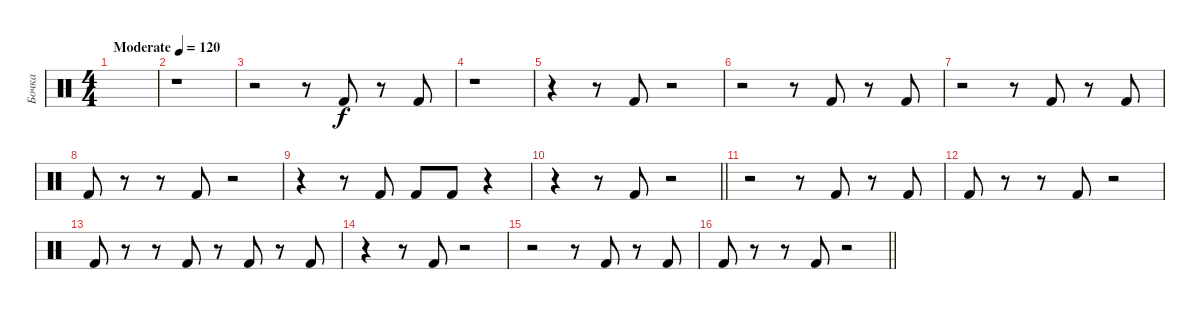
\track ("Бочка" "Бочка") {instrument percussion}
\staff {score}
\articulation defaults
\ts (4 4)
\tempo (120 "Moderate")
\clef neutral
\ks c
|
r.1 |
r.2 r.8 "Kick (hit) 2".8 r.8 "Kick (hit) 2".8 |
r.1 |
r.4 r.8 "Kick (hit) 2".8 r.2 |
r.2 r.8 "Kick (hit) 2".8 r.8 "Kick (hit) 2".8 |
r.2 r.8 "Kick (hit) 2".8 r.8 "Kick (hit) 2".8 |
"Kick (hit) 2".8 r.8 r.8 "Kick (hit) 2".8 r.2 |
r.4 r.8 "Kick (hit) 2".8 "Kick (hit) 2".8 "Kick (hit) 2".8 r.4 |
\barLineRight lightlight
r.4 r.8 "Kick (hit) 2".8 r.2 |
r.2 r.8 "Kick (hit) 2".8 r.8 "Kick (hit) 2".8 |
"Kick (hit) 2".8 r.8 r.8 "Kick (hit) 2".8 r.2 |
"Kick (hit) 2".8 r.8 r.8 "Kick (hit) 2".8 r.8 "Kick (hit) 2".8 r.8 "Kick (hit) 2".8 |
r.4 r.8 "Kick (hit) 2".8 r.2 |
r.2 r.8 "Kick (hit) 2".8 r.8 "Kick (hit) 2".8 |
\barLineRight lightlight "Kick (hit) 2".8
r.8 r.8 "Kick (hit) 2".8 r.2
